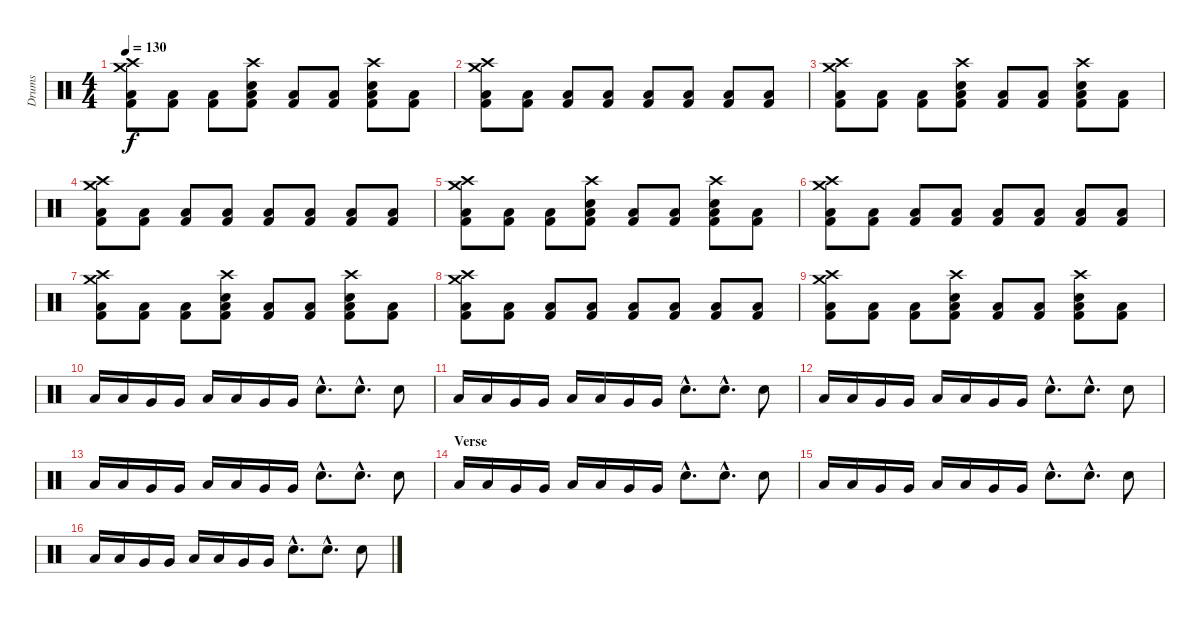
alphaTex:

\track ("Drums" "Drums") {instrument percussion}
\staff {score}
\articulation defaults
\ts (4 4)
\tempo 130
\clef neutral
\ks c
("Crash medium (hit)" "Crash high (hit)" "Low Tom (hit)" "Kick (hit) 2").8{dy f} ("Low Tom (hit)" "Kick (hit) 2").8 ("Low Tom (hit)" "Kick (hit) 2").8 ("Crash high (hit)" "Electric Snare (hit)" "Low Tom (hit)" "Kick (hit) 2").8 ("Low Tom (hit)" "Kick (hit) 2").8 ("Low Tom (hit)" "Kick (hit) 2").8 ("Electric Snare (hit)" "Crash high (hit)" "Low Tom (hit)" "Kick (hit) 2").8 ("Low Tom (hit)" "Kick (hit) 2").8 |
("Crash medium (hit)" "Crash high (hit)" "Low Tom (hit)" "Kick (hit) 2").8 ("Low Tom (hit)" "Kick (hit) 2").8 ("Low Tom (hit)" "Kick (hit) 2").8 ("Low Tom (hit)" "Kick (hit) 2").8 ("Low Tom (hit)" "Kick (hit) 2").8 ("Low Tom (hit)" "Kick (hit) 2").8 ("Low Tom (hit)" "Kick (hit) 2").8 ("Low Tom (hit)" "Kick (hit) 2").8 |
("Crash medium (hit)" "Crash high (hit)" "Low Tom (hit)" "Kick (hit) 2").8 ("Low Tom (hit)" "Kick (hit) 2").8 ("Low Tom (hit)" "Kick (hit) 2").8 ("Crash high (hit)" "Electric Snare (hit)" "Low Tom (hit)" "Kick (hit) 2").8 ("Low Tom (hit)" "Kick (hit) 2").8 ("Low Tom (hit)" "Kick (hit) 2").8 ("Electric Snare (hit)" "Crash high (hit)" "Low Tom (hit)" "Kick (hit) 2").8 ("Low Tom (hit)" "Kick (hit) 2").8 |
("Crash medium (hit)" "Crash high (hit)" "Low Tom (hit)" "Kick (hit) 2").8 ("Low Tom (hit)" "Kick (hit) 2").8 ("Low Tom (hit)" "Kick (hit) 2").8 ("Low Tom (hit)" "Kick (hit) 2").8 ("Low Tom (hit)" "Kick (hit) 2").8 ("Low Tom (hit)" "Kick (hit) 2").8 ("Low Tom (hit)" "Kick (hit) 2").8 ("Low Tom (hit)" "Kick (hit) 2").8 |
("Crash medium (hit)" "Crash high (hit)" "Low Tom (hit)" "Kick (hit) 2").8 ("Low Tom (hit)" "Kick (hit) 2").8 ("Low Tom (hit)" "Kick (hit) 2").8 ("Crash high (hit)" "Electric Snare (hit)" "Low Tom (hit)" "Kick (hit) 2").8 ("Low Tom (hit)" "Kick (hit) 2").8 ("Low Tom (hit)" "Kick (hit) 2").8 ("Electric Snare (hit)" "Crash high (hit)" "Low Tom (hit)" "Kick (hit) 2").8 ("Low Tom (hit)" "Kick (hit) 2").8 |
("Crash medium (hit)" "Crash high (hit)" "Low Tom (hit)" "Kick (hit) 2").8 ("Low Tom (hit)" "Kick (hit) 2").8 ("Low Tom (hit)" "Kick (hit) 2").8 ("Low Tom (hit)" "Kick (hit) 2").8 ("Low Tom (hit)" "Kick (hit) 2").8 ("Low Tom (hit)" "Kick (hit) 2").8 ("Low Tom (hit)" "Kick (hit) 2").8 ("Low Tom (hit)" "Kick (hit) 2").8 |
("Crash medium (hit)" "Crash high (hit)" "Low Tom (hit)" "Kick (hit) 2").8 ("Low Tom (hit)" "Kick (hit) 2").8 ("Low Tom (hit)" "Kick (hit) 2").8 ("Crash high (hit)" "Electric Snare (hit)" "Low Tom (hit)" "Kick (hit) 2").8 ("Low Tom (hit)" "Kick (hit) 2").8 ("Low Tom (hit)" "Kick (hit) 2").8 ("Electric Snare (hit)" "Crash high (hit)" "Low Tom (hit)" "Kick (hit) 2").8 ("Low Tom (hit)" "Kick (hit) 2").8 |
("Crash medium (hit)" "Crash high (hit)" "Low Tom (hit)" "Kick (hit) 2").8 ("Low Tom (hit)" "Kick (hit) 2").8 ("Low Tom (hit)" "Kick (hit) 2").8 ("Low Tom (hit)" "Kick (hit) 2").8 ("Low Tom (hit)" "Kick (hit) 2").8 ("Low Tom (hit)" "Kick (hit) 2").8 ("Low Tom (hit)" "Kick (hit) 2").8 ("Low Tom (hit)" "Kick (hit) 2").8 |
("Crash medium (hit)" "Crash high (hit)" "Low Tom (hit)" "Kick (hit) 2").8 ("Low Tom (hit)" "Kick (hit) 2").8 ("Low Tom (hit)" "Kick (hit) 2").8 ("Crash high (hit)" "Electric Snare (hit)" "Low Tom (hit)" "Kick (hit) 2").8 ("Low Tom (hit)" "Kick (hit) 2").8 ("Low Tom (hit)" "Kick (hit) 2").8 ("Electric Snare (hit)" "Crash high (hit)" "Low Tom (hit)" "Kick (hit) 2").8 ("Low Tom (hit)" "Kick (hit) 2").8 |
"Low Tom (hit)".16 "Low Tom (hit)".16 "Very Low Tom (hit)".16 "Very Low Tom (hit)".16 "Low Tom (hit)".16 "Low Tom (hit)".16 "Very Low Tom (hit)".16 "Very Low Tom (hit)".16 "Electric Snare (hit)"{hac}.8{d} "Electric Snare (hit)"{hac}.8{d} "Electric Snare (hit)".8 |
"Low Tom (hit)".16 "Low Tom (hit)".16 "Very Low Tom (hit)".16 "Very Low Tom (hit)".16 "Low Tom (hit)".16 "Low Tom (hit)".16 "Very Low Tom (hit)".16 "Very Low Tom (hit)".16 "Electric Snare (hit)"{hac}.8{d} "Electric Snare (hit)"{hac}.8{d} "Electric Snare (hit)".8 |
"Low Tom (hit)".16 "Low Tom (hit)".16 "Very Low Tom (hit)".16 "Very Low Tom (hit)".16 "Low Tom (hit)".16 "Low Tom (hit)".16 "Very Low Tom (hit)".16 "Very Low Tom (hit)".16 "Electric Snare (hit)"{hac}.8{d} "Electric Snare (hit)"{hac}.8{d} "Electric Snare (hit)".8 |
"Low Tom (hit)".16 "Low Tom (hit)".16 "Very Low Tom (hit)".16 "Very Low Tom (hit)".16 "Low Tom (hit)".16 "Low Tom (hit)".16 "Very Low Tom (hit)".16 "Very Low Tom (hit)".16 "Electric Snare (hit)"{hac}.8{d} "Electric Snare (hit)"{hac}.8{d} "Electric Snare (hit)"{x}.8 |
\section ("" "Verse")
"Low Tom (hit)".16 "Low Tom (hit)".16 "Very Low Tom (hit)".16 "Very Low Tom (hit)".16 "Low Tom (hit)".16 "Low Tom (hit)".16 "Very Low Tom (hit)".16 "Very Low Tom (hit)".16 "Electric Snare (hit)"{hac}.8{d} "Electric Snare (hit)"{hac}.8{d} "Electric Snare (hit)".8 |
"Low Tom (hit)".16 "Low Tom (hit)".16 "Very Low Tom (hit)".16 "Very Low Tom (hit)".16 "Low Tom (hit)".16 "Low Tom (hit)".16 "Very Low Tom (hit)".16 "Very Low Tom (hit)".16 "Electric Snare (hit)"{hac}.8{d} "Electric Snare (hit)"{hac}.8{d} "Electric Snare (hit)".8 |
"Low Tom (hit)".16 "Low Tom (hit)".16 "Very Low Tom (hit)".16 "Very Low Tom (hit)".16 "Low Tom (hit)".16 "Low Tom (hit)".16 "Very Low Tom (hit)".16 "Very Low Tom (hit)".16 "Electric Snare (hit)"{hac}.8{d} "Electric Snare (hit)"{hac}.8{d} "Electric Snare (hit)".8
